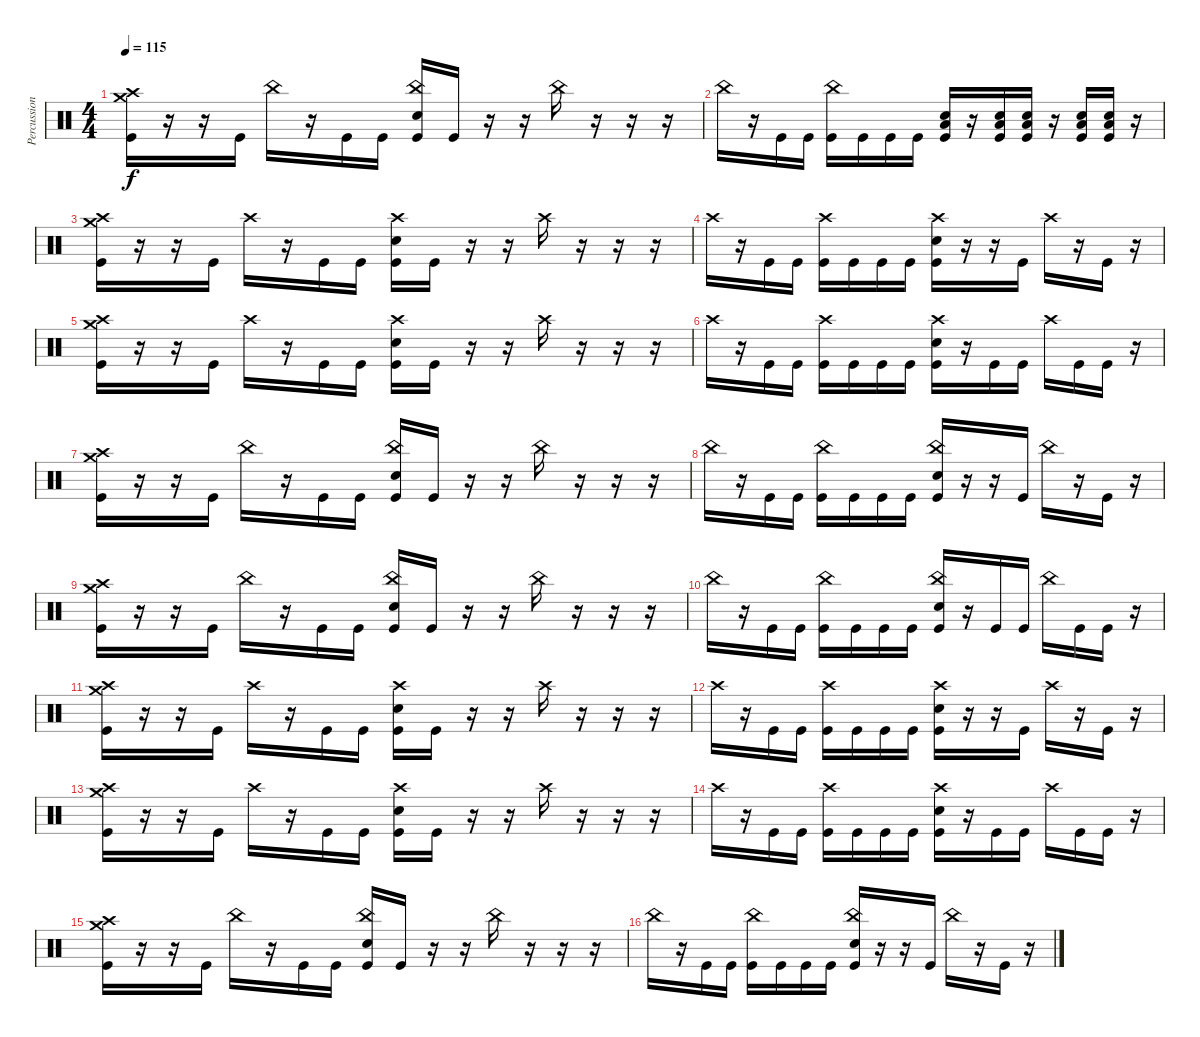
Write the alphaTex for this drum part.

\track ("Percussion" "Percussion") {instrument percussion}
\staff {score}
\articulation defaults
\ts (4 4)
\tempo 115
\clef neutral
\ks c
("Crash medium (hit)" "Crash high (hit)" "Kick (hit)").16{dy f} r.16 r.16 "Kick (hit)".16 "China (hit)".16 r.16 "Kick (hit)".16 "Kick (hit)".16 ("China (hit)" "Snare (hit) 2" "Kick (hit)").16 "Kick (hit)".16 r.16 r.16 "China (hit)".16 r.16 r.16 r.16 |
"China (hit)".16 r.16 "Kick (hit)".16 "Kick (hit)".16 ("China (hit)" "Kick (hit)").16 "Kick (hit)".16 "Kick (hit)".16 "Kick (hit)".16 ("Snare (hit) 2" "Low Floor Tom (hit)" "Kick (hit)").16 r.16 ("Snare (hit) 2" "Low Floor Tom (hit)" "Kick (hit)").16 ("Snare (hit) 2" "Low Floor Tom (hit)" "Kick (hit)").16 r.16 ("Snare (hit) 2" "Low Floor Tom (hit)" "Kick (hit)").16 ("Snare (hit) 2" "Low Floor Tom (hit)" "Kick (hit)").16 r.16 |
("Crash medium (hit)" "Crash high (hit)" "Kick (hit)").16 r.16 r.16 "Kick (hit)".16 "Crash high (hit)".16 r.16 "Kick (hit)".16 "Kick (hit)".16 ("Crash high (hit)" "Snare (hit) 2" "Kick (hit)").16 "Kick (hit)".16 r.16 r.16 "Crash high (hit)".16 r.16 r.16 r.16 |
"Crash high (hit)".16 r.16 "Kick (hit)".16 "Kick (hit)".16 ("Crash high (hit)" "Kick (hit)").16 "Kick (hit)".16 "Kick (hit)".16 "Kick (hit)".16 ("Crash high (hit)" "Snare (hit) 2" "Kick (hit)").16 r.16 r.16 "Kick (hit)".16 "Crash high (hit)".16 r.16 "Kick (hit)".16 r.16 |
("Crash medium (hit)" "Crash high (hit)" "Kick (hit)").16 r.16 r.16 "Kick (hit)".16 "Crash high (hit)".16 r.16 "Kick (hit)".16 "Kick (hit)".16 ("Crash high (hit)" "Snare (hit) 2" "Kick (hit)").16 "Kick (hit)".16 r.16 r.16 "Crash high (hit)".16 r.16 r.16 r.16 |
"Crash high (hit)".16 r.16 "Kick (hit)".16 "Kick (hit)".16 ("Crash high (hit)" "Kick (hit)").16 "Kick (hit)".16 "Kick (hit)".16 "Kick (hit)".16 ("Crash high (hit)" "Snare (hit) 2" "Kick (hit)").16 r.16 "Kick (hit)".16 "Kick (hit)".16 "Crash high (hit)".16 "Kick (hit)".16 "Kick (hit)".16 r.16 |
("Crash medium (hit)" "Crash high (hit)" "Kick (hit)").16 r.16 r.16 "Kick (hit)".16 "China (hit)".16 r.16 "Kick (hit)".16 "Kick (hit)".16 ("China (hit)" "Snare (hit) 2" "Kick (hit)").16 "Kick (hit)".16 r.16 r.16 "China (hit)".16 r.16 r.16 r.16 |
"China (hit)".16 r.16 "Kick (hit)".16 "Kick (hit)".16 ("China (hit)" "Kick (hit)").16 "Kick (hit)".16 "Kick (hit)".16 "Kick (hit)".16 ("China (hit)" "Snare (hit) 2" "Kick (hit)").16 r.16 r.16 "Kick (hit)".16 "China (hit)".16 r.16 "Kick (hit)".16 r.16 |
("Crash medium (hit)" "Crash high (hit)" "Kick (hit)").16 r.16 r.16 "Kick (hit)".16 "China (hit)".16 r.16 "Kick (hit)".16 "Kick (hit)".16 ("China (hit)" "Snare (hit) 2" "Kick (hit)").16 "Kick (hit)".16 r.16 r.16 "China (hit)".16 r.16 r.16 r.16 |
"China (hit)".16 r.16 "Kick (hit)".16 "Kick (hit)".16 ("China (hit)" "Kick (hit)").16 "Kick (hit)".16 "Kick (hit)".16 "Kick (hit)".16 ("China (hit)" "Snare (hit) 2" "Kick (hit)").16 r.16 "Kick (hit)".16 "Kick (hit)".16 "China (hit)".16 "Kick (hit)".16 "Kick (hit)".16 r.16 |
("Crash medium (hit)" "Crash high (hit)" "Kick (hit)").16 r.16 r.16 "Kick (hit)".16 "Crash high (hit)".16 r.16 "Kick (hit)".16 "Kick (hit)".16 ("Crash high (hit)" "Snare (hit) 2" "Kick (hit)").16 "Kick (hit)".16 r.16 r.16 "Crash high (hit)".16 r.16 r.16 r.16 |
"Crash high (hit)".16 r.16 "Kick (hit)".16 "Kick (hit)".16 ("Crash high (hit)" "Kick (hit)").16 "Kick (hit)".16 "Kick (hit)".16 "Kick (hit)".16 ("Crash high (hit)" "Snare (hit) 2" "Kick (hit)").16 r.16 r.16 "Kick (hit)".16 "Crash high (hit)".16 r.16 "Kick (hit)".16 r.16 |
("Crash medium (hit)" "Crash high (hit)" "Kick (hit)").16 r.16 r.16 "Kick (hit)".16 "Crash high (hit)".16 r.16 "Kick (hit)".16 "Kick (hit)".16 ("Crash high (hit)" "Snare (hit) 2" "Kick (hit)").16 "Kick (hit)".16 r.16 r.16 "Crash high (hit)".16 r.16 r.16 r.16 |
"Crash high (hit)".16 r.16 "Kick (hit)".16 "Kick (hit)".16 ("Crash high (hit)" "Kick (hit)").16 "Kick (hit)".16 "Kick (hit)".16 "Kick (hit)".16 ("Crash high (hit)" "Snare (hit) 2" "Kick (hit)").16 r.16 "Kick (hit)".16 "Kick (hit)".16 "Crash high (hit)".16 "Kick (hit)".16 "Kick (hit)".16 r.16 |
("Crash medium (hit)" "Crash high (hit)" "Kick (hit)").16 r.16 r.16 "Kick (hit)".16 "China (hit)".16 r.16 "Kick (hit)".16 "Kick (hit)".16 ("China (hit)" "Snare (hit) 2" "Kick (hit)").16 "Kick (hit)".16 r.16 r.16 "China (hit)".16 r.16 r.16 r.16 |
"China (hit)".16 r.16 "Kick (hit)".16 "Kick (hit)".16 ("China (hit)" "Kick (hit)").16 "Kick (hit)".16 "Kick (hit)".16 "Kick (hit)".16 ("China (hit)" "Snare (hit) 2" "Kick (hit)").16 r.16 r.16 "Kick (hit)".16 "China (hit)".16 r.16 "Kick (hit)".16 r.16
